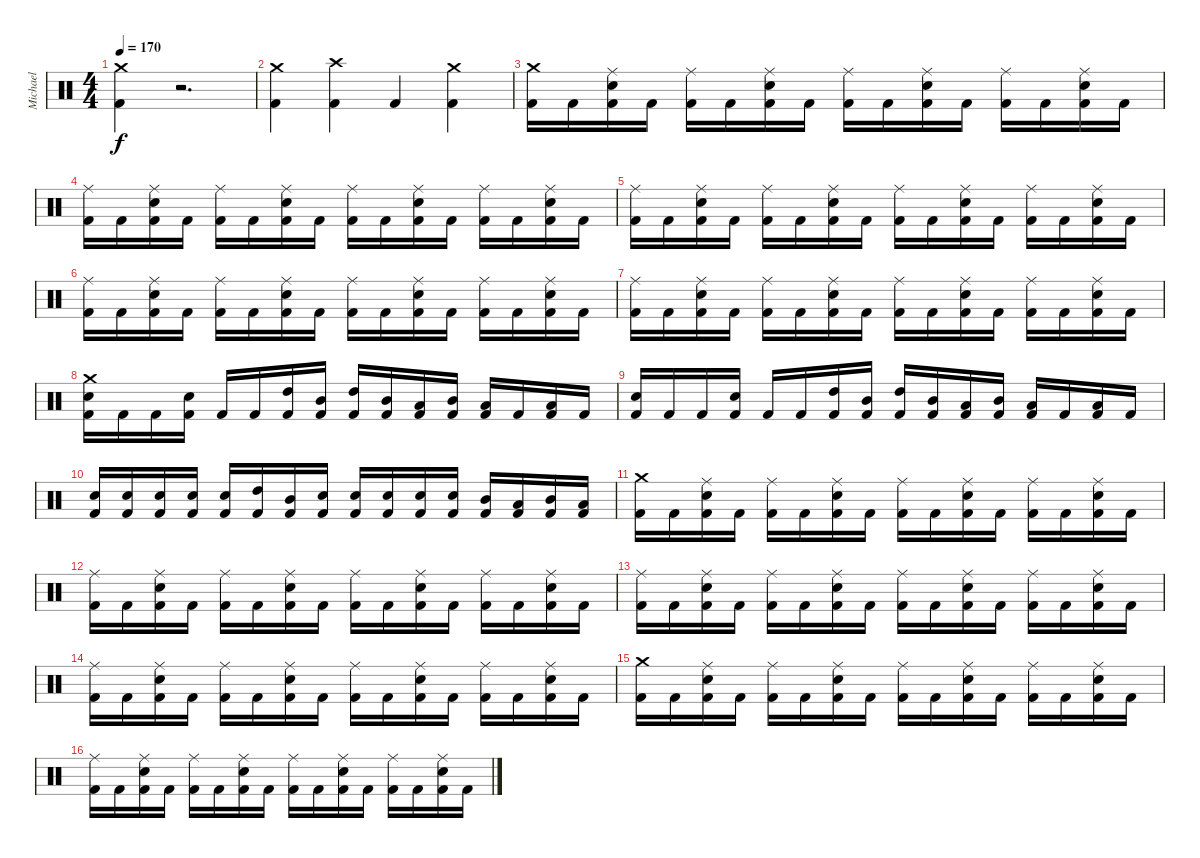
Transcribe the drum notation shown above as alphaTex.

\track ("Michael" "Michael") {instrument percussion}
\staff {score}
\articulation defaults
\ts (4 4)
\tempo 170
\clef neutral
\ks c
("Crash medium (hit)" "Kick (hit) 2").4{dy f} r.2{d} |
("Crash medium (hit)" "Kick (hit) 2").4 ("Crash high (hit)" "Kick (hit) 2").4 "Kick (hit) 2".4 ("Crash medium (hit)" "Kick (hit) 2").4 |
("Crash medium (hit)" "Kick (hit) 2").16 "Kick (hit) 2".16 ("Ride (middle)" "Electric Snare (hit)" "Kick (hit) 2").16 "Kick (hit) 2".16 ("Ride (middle)" "Kick (hit) 2").16 "Kick (hit) 2".16 ("Ride (middle)" "Electric Snare (hit)" "Kick (hit) 2").16 "Kick (hit) 2".16 ("Ride (middle)" "Kick (hit) 2").16 "Kick (hit) 2".16 ("Ride (middle)" "Electric Snare (hit)" "Kick (hit) 2").16 "Kick (hit) 2".16 ("Ride (middle)" "Kick (hit) 2").16 "Kick (hit) 2".16 ("Ride (middle)" "Electric Snare (hit)" "Kick (hit) 2").16 "Kick (hit) 2".16 |
("Ride (middle)" "Kick (hit) 2").16 "Kick (hit) 2".16 ("Ride (middle)" "Electric Snare (hit)" "Kick (hit) 2").16 "Kick (hit) 2".16 ("Ride (middle)" "Kick (hit) 2").16 "Kick (hit) 2".16 ("Ride (middle)" "Electric Snare (hit)" "Kick (hit) 2").16 "Kick (hit) 2".16 ("Ride (middle)" "Kick (hit) 2").16 "Kick (hit) 2".16 ("Ride (middle)" "Electric Snare (hit)" "Kick (hit) 2").16 "Kick (hit) 2".16 ("Ride (middle)" "Kick (hit) 2").16 "Kick (hit) 2".16 ("Ride (middle)" "Electric Snare (hit)" "Kick (hit) 2").16 "Kick (hit) 2".16 |
("Ride (middle)" "Kick (hit) 2").16 "Kick (hit) 2".16 ("Ride (middle)" "Electric Snare (hit)" "Kick (hit) 2").16 "Kick (hit) 2".16 ("Ride (middle)" "Kick (hit) 2").16 "Kick (hit) 2".16 ("Ride (middle)" "Electric Snare (hit)" "Kick (hit) 2").16 "Kick (hit) 2".16 ("Ride (middle)" "Kick (hit) 2").16 "Kick (hit) 2".16 ("Ride (middle)" "Electric Snare (hit)" "Kick (hit) 2").16 "Kick (hit) 2".16 ("Ride (middle)" "Kick (hit) 2").16 "Kick (hit) 2".16 ("Ride (middle)" "Electric Snare (hit)" "Kick (hit) 2").16 "Kick (hit) 2".16 |
("Ride (middle)" "Kick (hit) 2").16 "Kick (hit) 2".16 ("Ride (middle)" "Electric Snare (hit)" "Kick (hit) 2").16 "Kick (hit) 2".16 ("Ride (middle)" "Kick (hit) 2").16 "Kick (hit) 2".16 ("Ride (middle)" "Electric Snare (hit)" "Kick (hit) 2").16 "Kick (hit) 2".16 ("Ride (middle)" "Kick (hit) 2").16 "Kick (hit) 2".16 ("Ride (middle)" "Electric Snare (hit)" "Kick (hit) 2").16 "Kick (hit) 2".16 ("Ride (middle)" "Kick (hit) 2").16 "Kick (hit) 2".16 ("Ride (middle)" "Electric Snare (hit)" "Kick (hit) 2").16 "Kick (hit) 2".16 |
("Ride (middle)" "Kick (hit) 2").16 "Kick (hit) 2".16 ("Ride (middle)" "Electric Snare (hit)" "Kick (hit) 2").16 "Kick (hit) 2".16 ("Ride (middle)" "Kick (hit) 2").16 "Kick (hit) 2".16 ("Ride (middle)" "Electric Snare (hit)" "Kick (hit) 2").16 "Kick (hit) 2".16 ("Ride (middle)" "Kick (hit) 2").16 "Kick (hit) 2".16 ("Ride (middle)" "Electric Snare (hit)" "Kick (hit) 2").16 "Kick (hit) 2".16 ("Ride (middle)" "Kick (hit) 2").16 "Kick (hit) 2".16 ("Ride (middle)" "Electric Snare (hit)" "Kick (hit) 2").16 "Kick (hit) 2".16 |
("Crash medium (hit)" "Electric Snare (hit)" "Kick (hit) 2").16 "Kick (hit) 2".16 "Kick (hit) 2".16 ("Electric Snare (hit)" "Kick (hit) 2").16 "Kick (hit) 2".16 "Kick (hit) 2".16 ("High Tom (hit)" "Kick (hit) 2").16 ("Mid Tom (hit)" "Kick (hit) 2").16 ("High Tom (hit)" "Kick (hit) 2").16 ("Mid Tom (hit)" "Kick (hit) 2").16 ("Low Tom (hit)" "Kick (hit) 2").16 ("Mid Tom (hit)" "Kick (hit) 2").16 ("Low Tom (hit)" "Kick (hit) 2").16 "Kick (hit) 2".16 ("Low Tom (hit)" "Kick (hit) 2").16 "Kick (hit) 2".16 |
("Electric Snare (hit)" "Kick (hit) 2").16 "Kick (hit) 2".16 "Kick (hit) 2".16 ("Electric Snare (hit)" "Kick (hit) 2").16 "Kick (hit) 2".16 "Kick (hit) 2".16 ("High Tom (hit)" "Kick (hit) 2").16 ("Mid Tom (hit)" "Kick (hit) 2").16 ("High Tom (hit)" "Kick (hit) 2").16 ("Mid Tom (hit)" "Kick (hit) 2").16 ("Low Tom (hit)" "Kick (hit) 2").16 ("Mid Tom (hit)" "Kick (hit) 2").16 ("Low Tom (hit)" "Kick (hit) 2").16 "Kick (hit) 2".16 ("Low Tom (hit)" "Kick (hit) 2").16 "Kick (hit) 2".16 |
("Electric Snare (hit)" "Kick (hit) 2").16 ("Electric Snare (hit)" "Kick (hit) 2").16 ("Electric Snare (hit)" "Kick (hit) 2").16 ("Electric Snare (hit)" "Kick (hit) 2").16 ("Electric Snare (hit)" "Kick (hit) 2").16 ("High Tom (hit)" "Kick (hit) 2").16 ("Mid Tom (hit)" "Kick (hit) 2").16 ("Electric Snare (hit)" "Kick (hit) 2").16 ("Electric Snare (hit)" "Kick (hit) 2").16 ("Electric Snare (hit)" "Kick (hit) 2").16 ("Electric Snare (hit)" "Kick (hit) 2").16 ("Electric Snare (hit)" "Kick (hit) 2").16 ("Mid Tom (hit)" "Kick (hit) 2").16 ("Low Tom (hit)" "Kick (hit) 2").16 ("Mid Tom (hit)" "Kick (hit) 2").16 ("Low Tom (hit)" "Kick (hit) 2").16 |
("Crash medium (hit)" "Kick (hit) 2").16 "Kick (hit) 2".16 ("Ride (middle)" "Electric Snare (hit)" "Kick (hit) 2").16 "Kick (hit) 2".16 ("Ride (middle)" "Kick (hit) 2").16 "Kick (hit) 2".16 ("Ride (middle)" "Electric Snare (hit)" "Kick (hit) 2").16 "Kick (hit) 2".16 ("Ride (middle)" "Kick (hit) 2").16 "Kick (hit) 2".16 ("Ride (middle)" "Electric Snare (hit)" "Kick (hit) 2").16 "Kick (hit) 2".16 ("Ride (middle)" "Kick (hit) 2").16 "Kick (hit) 2".16 ("Ride (middle)" "Electric Snare (hit)" "Kick (hit) 2").16 "Kick (hit) 2".16 |
("Ride (middle)" "Kick (hit) 2").16 "Kick (hit) 2".16 ("Ride (middle)" "Electric Snare (hit)" "Kick (hit) 2").16 "Kick (hit) 2".16 ("Ride (middle)" "Kick (hit) 2").16 "Kick (hit) 2".16 ("Ride (middle)" "Electric Snare (hit)" "Kick (hit) 2").16 "Kick (hit) 2".16 ("Ride (middle)" "Kick (hit) 2").16 "Kick (hit) 2".16 ("Ride (middle)" "Electric Snare (hit)" "Kick (hit) 2").16 "Kick (hit) 2".16 ("Ride (middle)" "Kick (hit) 2").16 "Kick (hit) 2".16 ("Ride (middle)" "Electric Snare (hit)" "Kick (hit) 2").16 "Kick (hit) 2".16 |
("Ride (middle)" "Kick (hit) 2").16 "Kick (hit) 2".16 ("Ride (middle)" "Electric Snare (hit)" "Kick (hit) 2").16 "Kick (hit) 2".16 ("Ride (middle)" "Kick (hit) 2").16 "Kick (hit) 2".16 ("Ride (middle)" "Electric Snare (hit)" "Kick (hit) 2").16 "Kick (hit) 2".16 ("Ride (middle)" "Kick (hit) 2").16 "Kick (hit) 2".16 ("Ride (middle)" "Electric Snare (hit)" "Kick (hit) 2").16 "Kick (hit) 2".16 ("Ride (middle)" "Kick (hit) 2").16 "Kick (hit) 2".16 ("Ride (middle)" "Electric Snare (hit)" "Kick (hit) 2").16 "Kick (hit) 2".16 |
("Ride (middle)" "Kick (hit) 2").16 "Kick (hit) 2".16 ("Ride (middle)" "Electric Snare (hit)" "Kick (hit) 2").16 "Kick (hit) 2".16 ("Ride (middle)" "Kick (hit) 2").16 "Kick (hit) 2".16 ("Ride (middle)" "Electric Snare (hit)" "Kick (hit) 2").16 "Kick (hit) 2".16 ("Ride (middle)" "Kick (hit) 2").16 "Kick (hit) 2".16 ("Ride (middle)" "Electric Snare (hit)" "Kick (hit) 2").16 "Kick (hit) 2".16 ("Ride (middle)" "Kick (hit) 2").16 "Kick (hit) 2".16 ("Ride (middle)" "Electric Snare (hit)" "Kick (hit) 2").16 "Kick (hit) 2".16 |
("Crash medium (hit)" "Kick (hit) 2").16 "Kick (hit) 2".16 ("Ride (middle)" "Electric Snare (hit)" "Kick (hit) 2").16 "Kick (hit) 2".16 ("Ride (middle)" "Kick (hit) 2").16 "Kick (hit) 2".16 ("Ride (middle)" "Electric Snare (hit)" "Kick (hit) 2").16 "Kick (hit) 2".16 ("Ride (middle)" "Kick (hit) 2").16 "Kick (hit) 2".16 ("Ride (middle)" "Electric Snare (hit)" "Kick (hit) 2").16 "Kick (hit) 2".16 ("Ride (middle)" "Kick (hit) 2").16 "Kick (hit) 2".16 ("Ride (middle)" "Electric Snare (hit)" "Kick (hit) 2").16 "Kick (hit) 2".16 |
("Ride (middle)" "Kick (hit) 2").16 "Kick (hit) 2".16 ("Ride (middle)" "Electric Snare (hit)" "Kick (hit) 2").16 "Kick (hit) 2".16 ("Ride (middle)" "Kick (hit) 2").16 "Kick (hit) 2".16 ("Ride (middle)" "Electric Snare (hit)" "Kick (hit) 2").16 "Kick (hit) 2".16 ("Ride (middle)" "Kick (hit) 2").16 "Kick (hit) 2".16 ("Ride (middle)" "Electric Snare (hit)" "Kick (hit) 2").16 "Kick (hit) 2".16 ("Ride (middle)" "Kick (hit) 2").16 "Kick (hit) 2".16 ("Ride (middle)" "Electric Snare (hit)" "Kick (hit) 2").16 "Kick (hit) 2".16
